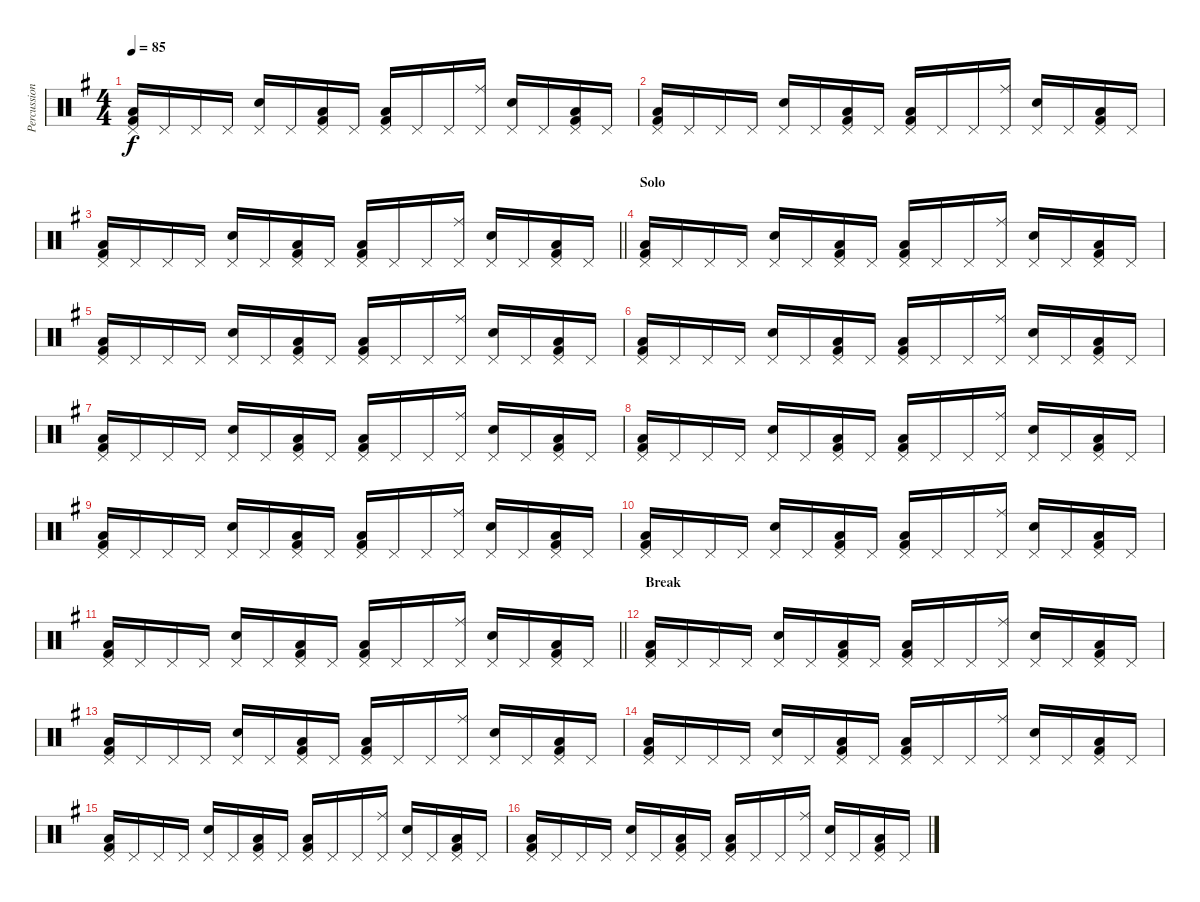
\track ("Percussion" "Percussion") {instrument percussion}
\staff {score}
\articulation defaults
\ts (4 4)
\tempo 85
\clef neutral
\ks g
("Pedal Hi-Hat (hit)" "Low Tom (hit)" "Kick (hit) 2").16{dy f} "Pedal Hi-Hat (hit)".16 "Pedal Hi-Hat (hit)".16 "Pedal Hi-Hat (hit)".16 ("Pedal Hi-Hat (hit)" "Electric Snare (hit)").16 "Pedal Hi-Hat (hit)".16 ("Pedal Hi-Hat (hit)" "Low Floor Tom (hit)" "Kick (hit) 2").16 "Pedal Hi-Hat (hit)".16 ("Pedal Hi-Hat (hit)" "Low Tom (hit)" "Kick (hit) 2").16 "Pedal Hi-Hat (hit)".16 "Pedal Hi-Hat (hit)".16 ("Pedal Hi-Hat (hit)" "Ride (middle)").16 ("Pedal Hi-Hat (hit)" "Electric Snare (hit)").16 "Pedal Hi-Hat (hit)".16 ("Pedal Hi-Hat (hit)" "Low Floor Tom (hit)" "Kick (hit) 2").16 "Pedal Hi-Hat (hit)".16 |
("Pedal Hi-Hat (hit)" "Low Tom (hit)" "Kick (hit) 2").16 "Pedal Hi-Hat (hit)".16 "Pedal Hi-Hat (hit)".16 "Pedal Hi-Hat (hit)".16 ("Pedal Hi-Hat (hit)" "Electric Snare (hit)").16 "Pedal Hi-Hat (hit)".16 ("Pedal Hi-Hat (hit)" "Low Floor Tom (hit)" "Kick (hit) 2").16 "Pedal Hi-Hat (hit)".16 ("Pedal Hi-Hat (hit)" "Low Tom (hit)" "Kick (hit) 2").16 "Pedal Hi-Hat (hit)".16 "Pedal Hi-Hat (hit)".16 ("Pedal Hi-Hat (hit)" "Ride (middle)").16 ("Pedal Hi-Hat (hit)" "Electric Snare (hit)").16 "Pedal Hi-Hat (hit)".16 ("Pedal Hi-Hat (hit)" "Low Floor Tom (hit)" "Kick (hit) 2").16 "Pedal Hi-Hat (hit)".16 |
\barLineRight lightlight
("Pedal Hi-Hat (hit)" "Low Tom (hit)" "Kick (hit) 2").16 "Pedal Hi-Hat (hit)".16 "Pedal Hi-Hat (hit)".16 "Pedal Hi-Hat (hit)".16 ("Pedal Hi-Hat (hit)" "Electric Snare (hit)").16 "Pedal Hi-Hat (hit)".16 ("Pedal Hi-Hat (hit)" "Low Floor Tom (hit)" "Kick (hit) 2").16 "Pedal Hi-Hat (hit)".16 ("Pedal Hi-Hat (hit)" "Low Tom (hit)" "Kick (hit) 2").16 "Pedal Hi-Hat (hit)".16 "Pedal Hi-Hat (hit)".16 ("Pedal Hi-Hat (hit)" "Ride (middle)").16 ("Pedal Hi-Hat (hit)" "Electric Snare (hit)").16 "Pedal Hi-Hat (hit)".16 ("Pedal Hi-Hat (hit)" "Low Floor Tom (hit)" "Kick (hit) 2").16 "Pedal Hi-Hat (hit)".16 |
\section ("" "Solo")
("Pedal Hi-Hat (hit)" "Low Tom (hit)" "Kick (hit) 2").16 "Pedal Hi-Hat (hit)".16 "Pedal Hi-Hat (hit)".16 "Pedal Hi-Hat (hit)".16 ("Pedal Hi-Hat (hit)" "Electric Snare (hit)").16 "Pedal Hi-Hat (hit)".16 ("Pedal Hi-Hat (hit)" "Low Floor Tom (hit)" "Kick (hit) 2").16 "Pedal Hi-Hat (hit)".16 ("Pedal Hi-Hat (hit)" "Low Tom (hit)" "Kick (hit) 2").16 "Pedal Hi-Hat (hit)".16 "Pedal Hi-Hat (hit)".16 ("Pedal Hi-Hat (hit)" "Ride (middle)").16 ("Pedal Hi-Hat (hit)" "Electric Snare (hit)").16 "Pedal Hi-Hat (hit)".16 ("Pedal Hi-Hat (hit)" "Low Floor Tom (hit)" "Kick (hit) 2").16 "Pedal Hi-Hat (hit)".16 |
("Pedal Hi-Hat (hit)" "Low Tom (hit)" "Kick (hit) 2").16 "Pedal Hi-Hat (hit)".16 "Pedal Hi-Hat (hit)".16 "Pedal Hi-Hat (hit)".16 ("Pedal Hi-Hat (hit)" "Electric Snare (hit)").16 "Pedal Hi-Hat (hit)".16 ("Pedal Hi-Hat (hit)" "Low Floor Tom (hit)" "Kick (hit) 2").16 "Pedal Hi-Hat (hit)".16 ("Pedal Hi-Hat (hit)" "Low Tom (hit)" "Kick (hit) 2").16 "Pedal Hi-Hat (hit)".16 "Pedal Hi-Hat (hit)".16 ("Pedal Hi-Hat (hit)" "Ride (middle)").16 ("Pedal Hi-Hat (hit)" "Electric Snare (hit)").16 "Pedal Hi-Hat (hit)".16 ("Pedal Hi-Hat (hit)" "Low Floor Tom (hit)" "Kick (hit) 2").16 "Pedal Hi-Hat (hit)".16 |
("Pedal Hi-Hat (hit)" "Low Tom (hit)" "Kick (hit) 2").16 "Pedal Hi-Hat (hit)".16 "Pedal Hi-Hat (hit)".16 "Pedal Hi-Hat (hit)".16 ("Pedal Hi-Hat (hit)" "Electric Snare (hit)").16 "Pedal Hi-Hat (hit)".16 ("Pedal Hi-Hat (hit)" "Low Floor Tom (hit)" "Kick (hit) 2").16 "Pedal Hi-Hat (hit)".16 ("Pedal Hi-Hat (hit)" "Low Tom (hit)" "Kick (hit) 2").16 "Pedal Hi-Hat (hit)".16 "Pedal Hi-Hat (hit)".16 ("Pedal Hi-Hat (hit)" "Ride (middle)").16 ("Pedal Hi-Hat (hit)" "Electric Snare (hit)").16 "Pedal Hi-Hat (hit)".16 ("Pedal Hi-Hat (hit)" "Low Floor Tom (hit)" "Kick (hit) 2").16 "Pedal Hi-Hat (hit)".16 |
("Pedal Hi-Hat (hit)" "Low Tom (hit)" "Kick (hit) 2").16 "Pedal Hi-Hat (hit)".16 "Pedal Hi-Hat (hit)".16 "Pedal Hi-Hat (hit)".16 ("Pedal Hi-Hat (hit)" "Electric Snare (hit)").16 "Pedal Hi-Hat (hit)".16 ("Pedal Hi-Hat (hit)" "Low Floor Tom (hit)" "Kick (hit) 2").16 "Pedal Hi-Hat (hit)".16 ("Pedal Hi-Hat (hit)" "Low Tom (hit)" "Kick (hit) 2").16 "Pedal Hi-Hat (hit)".16 "Pedal Hi-Hat (hit)".16 ("Pedal Hi-Hat (hit)" "Ride (middle)").16 ("Pedal Hi-Hat (hit)" "Electric Snare (hit)").16 "Pedal Hi-Hat (hit)".16 ("Pedal Hi-Hat (hit)" "Low Floor Tom (hit)" "Kick (hit) 2").16 "Pedal Hi-Hat (hit)".16 |
("Pedal Hi-Hat (hit)" "Low Tom (hit)" "Kick (hit) 2").16 "Pedal Hi-Hat (hit)".16 "Pedal Hi-Hat (hit)".16 "Pedal Hi-Hat (hit)".16 ("Pedal Hi-Hat (hit)" "Electric Snare (hit)").16 "Pedal Hi-Hat (hit)".16 ("Pedal Hi-Hat (hit)" "Low Floor Tom (hit)" "Kick (hit) 2").16 "Pedal Hi-Hat (hit)".16 ("Pedal Hi-Hat (hit)" "Low Tom (hit)" "Kick (hit) 2").16 "Pedal Hi-Hat (hit)".16 "Pedal Hi-Hat (hit)".16 ("Pedal Hi-Hat (hit)" "Ride (middle)").16 ("Pedal Hi-Hat (hit)" "Electric Snare (hit)").16 "Pedal Hi-Hat (hit)".16 ("Pedal Hi-Hat (hit)" "Low Floor Tom (hit)" "Kick (hit) 2").16 "Pedal Hi-Hat (hit)".16 |
("Pedal Hi-Hat (hit)" "Low Tom (hit)" "Kick (hit) 2").16 "Pedal Hi-Hat (hit)".16 "Pedal Hi-Hat (hit)".16 "Pedal Hi-Hat (hit)".16 ("Pedal Hi-Hat (hit)" "Electric Snare (hit)").16 "Pedal Hi-Hat (hit)".16 ("Pedal Hi-Hat (hit)" "Low Floor Tom (hit)" "Kick (hit) 2").16 "Pedal Hi-Hat (hit)".16 ("Pedal Hi-Hat (hit)" "Low Tom (hit)" "Kick (hit) 2").16 "Pedal Hi-Hat (hit)".16 "Pedal Hi-Hat (hit)".16 ("Pedal Hi-Hat (hit)" "Ride (middle)").16 ("Pedal Hi-Hat (hit)" "Electric Snare (hit)").16 "Pedal Hi-Hat (hit)".16 ("Pedal Hi-Hat (hit)" "Low Floor Tom (hit)" "Kick (hit) 2").16 "Pedal Hi-Hat (hit)".16 |
("Pedal Hi-Hat (hit)" "Low Tom (hit)" "Kick (hit) 2").16 "Pedal Hi-Hat (hit)".16 "Pedal Hi-Hat (hit)".16 "Pedal Hi-Hat (hit)".16 ("Pedal Hi-Hat (hit)" "Electric Snare (hit)").16 "Pedal Hi-Hat (hit)".16 ("Pedal Hi-Hat (hit)" "Low Floor Tom (hit)" "Kick (hit) 2").16 "Pedal Hi-Hat (hit)".16 ("Pedal Hi-Hat (hit)" "Low Tom (hit)" "Kick (hit) 2").16 "Pedal Hi-Hat (hit)".16 "Pedal Hi-Hat (hit)".16 ("Pedal Hi-Hat (hit)" "Ride (middle)").16 ("Pedal Hi-Hat (hit)" "Electric Snare (hit)").16 "Pedal Hi-Hat (hit)".16 ("Pedal Hi-Hat (hit)" "Low Floor Tom (hit)" "Kick (hit) 2").16 "Pedal Hi-Hat (hit)".16 |
\barLineRight lightlight
("Pedal Hi-Hat (hit)" "Low Tom (hit)" "Kick (hit) 2").16 "Pedal Hi-Hat (hit)".16 "Pedal Hi-Hat (hit)".16 "Pedal Hi-Hat (hit)".16 ("Pedal Hi-Hat (hit)" "Electric Snare (hit)").16 "Pedal Hi-Hat (hit)".16 ("Pedal Hi-Hat (hit)" "Low Floor Tom (hit)" "Kick (hit) 2").16 "Pedal Hi-Hat (hit)".16 ("Pedal Hi-Hat (hit)" "Low Tom (hit)" "Kick (hit) 2").16 "Pedal Hi-Hat (hit)".16 "Pedal Hi-Hat (hit)".16 ("Pedal Hi-Hat (hit)" "Ride (middle)").16 ("Pedal Hi-Hat (hit)" "Electric Snare (hit)").16 "Pedal Hi-Hat (hit)".16 ("Pedal Hi-Hat (hit)" "Low Floor Tom (hit)" "Kick (hit) 2").16 "Pedal Hi-Hat (hit)".16 |
\section ("" "Break")
("Pedal Hi-Hat (hit)" "Low Tom (hit)" "Kick (hit) 2").16 "Pedal Hi-Hat (hit)".16 "Pedal Hi-Hat (hit)".16 "Pedal Hi-Hat (hit)".16 ("Pedal Hi-Hat (hit)" "Electric Snare (hit)").16 "Pedal Hi-Hat (hit)".16 ("Pedal Hi-Hat (hit)" "Low Floor Tom (hit)" "Kick (hit) 2").16 "Pedal Hi-Hat (hit)".16 ("Pedal Hi-Hat (hit)" "Low Tom (hit)" "Kick (hit) 2").16 "Pedal Hi-Hat (hit)".16 "Pedal Hi-Hat (hit)".16 ("Pedal Hi-Hat (hit)" "Ride (middle)").16 ("Pedal Hi-Hat (hit)" "Electric Snare (hit)").16 "Pedal Hi-Hat (hit)".16 ("Pedal Hi-Hat (hit)" "Low Floor Tom (hit)" "Kick (hit) 2").16 "Pedal Hi-Hat (hit)".16 |
("Pedal Hi-Hat (hit)" "Low Tom (hit)" "Kick (hit) 2").16 "Pedal Hi-Hat (hit)".16 "Pedal Hi-Hat (hit)".16 "Pedal Hi-Hat (hit)".16 ("Pedal Hi-Hat (hit)" "Electric Snare (hit)").16 "Pedal Hi-Hat (hit)".16 ("Pedal Hi-Hat (hit)" "Low Floor Tom (hit)" "Kick (hit) 2").16 "Pedal Hi-Hat (hit)".16 ("Pedal Hi-Hat (hit)" "Low Tom (hit)" "Kick (hit) 2").16 "Pedal Hi-Hat (hit)".16 "Pedal Hi-Hat (hit)".16 ("Pedal Hi-Hat (hit)" "Ride (middle)").16 ("Pedal Hi-Hat (hit)" "Electric Snare (hit)").16 "Pedal Hi-Hat (hit)".16 ("Pedal Hi-Hat (hit)" "Low Floor Tom (hit)" "Kick (hit) 2").16 "Pedal Hi-Hat (hit)".16 |
("Pedal Hi-Hat (hit)" "Low Tom (hit)" "Kick (hit) 2").16 "Pedal Hi-Hat (hit)".16 "Pedal Hi-Hat (hit)".16 "Pedal Hi-Hat (hit)".16 ("Pedal Hi-Hat (hit)" "Electric Snare (hit)").16 "Pedal Hi-Hat (hit)".16 ("Pedal Hi-Hat (hit)" "Low Floor Tom (hit)" "Kick (hit) 2").16 "Pedal Hi-Hat (hit)".16 ("Pedal Hi-Hat (hit)" "Low Tom (hit)" "Kick (hit) 2").16 "Pedal Hi-Hat (hit)".16 "Pedal Hi-Hat (hit)".16 ("Pedal Hi-Hat (hit)" "Ride (middle)").16 ("Pedal Hi-Hat (hit)" "Electric Snare (hit)").16 "Pedal Hi-Hat (hit)".16 ("Pedal Hi-Hat (hit)" "Low Floor Tom (hit)" "Kick (hit) 2").16 "Pedal Hi-Hat (hit)".16 |
("Pedal Hi-Hat (hit)" "Low Tom (hit)" "Kick (hit) 2").16 "Pedal Hi-Hat (hit)".16 "Pedal Hi-Hat (hit)".16 "Pedal Hi-Hat (hit)".16 ("Pedal Hi-Hat (hit)" "Electric Snare (hit)").16 "Pedal Hi-Hat (hit)".16 ("Pedal Hi-Hat (hit)" "Low Floor Tom (hit)" "Kick (hit) 2").16 "Pedal Hi-Hat (hit)".16 ("Pedal Hi-Hat (hit)" "Low Tom (hit)" "Kick (hit) 2").16 "Pedal Hi-Hat (hit)".16 "Pedal Hi-Hat (hit)".16 ("Pedal Hi-Hat (hit)" "Ride (middle)").16 ("Pedal Hi-Hat (hit)" "Electric Snare (hit)").16 "Pedal Hi-Hat (hit)".16 ("Pedal Hi-Hat (hit)" "Low Floor Tom (hit)" "Kick (hit) 2").16 "Pedal Hi-Hat (hit)".16 |
("Pedal Hi-Hat (hit)" "Low Tom (hit)" "Kick (hit) 2").16 "Pedal Hi-Hat (hit)".16 "Pedal Hi-Hat (hit)".16 "Pedal Hi-Hat (hit)".16 ("Pedal Hi-Hat (hit)" "Electric Snare (hit)").16 "Pedal Hi-Hat (hit)".16 ("Pedal Hi-Hat (hit)" "Low Floor Tom (hit)" "Kick (hit) 2").16 "Pedal Hi-Hat (hit)".16 ("Pedal Hi-Hat (hit)" "Low Tom (hit)" "Kick (hit) 2").16 "Pedal Hi-Hat (hit)".16 "Pedal Hi-Hat (hit)".16 ("Pedal Hi-Hat (hit)" "Ride (middle)").16 ("Pedal Hi-Hat (hit)" "Electric Snare (hit)").16 "Pedal Hi-Hat (hit)".16 ("Pedal Hi-Hat (hit)" "Low Floor Tom (hit)" "Kick (hit) 2").16 "Pedal Hi-Hat (hit)".16
